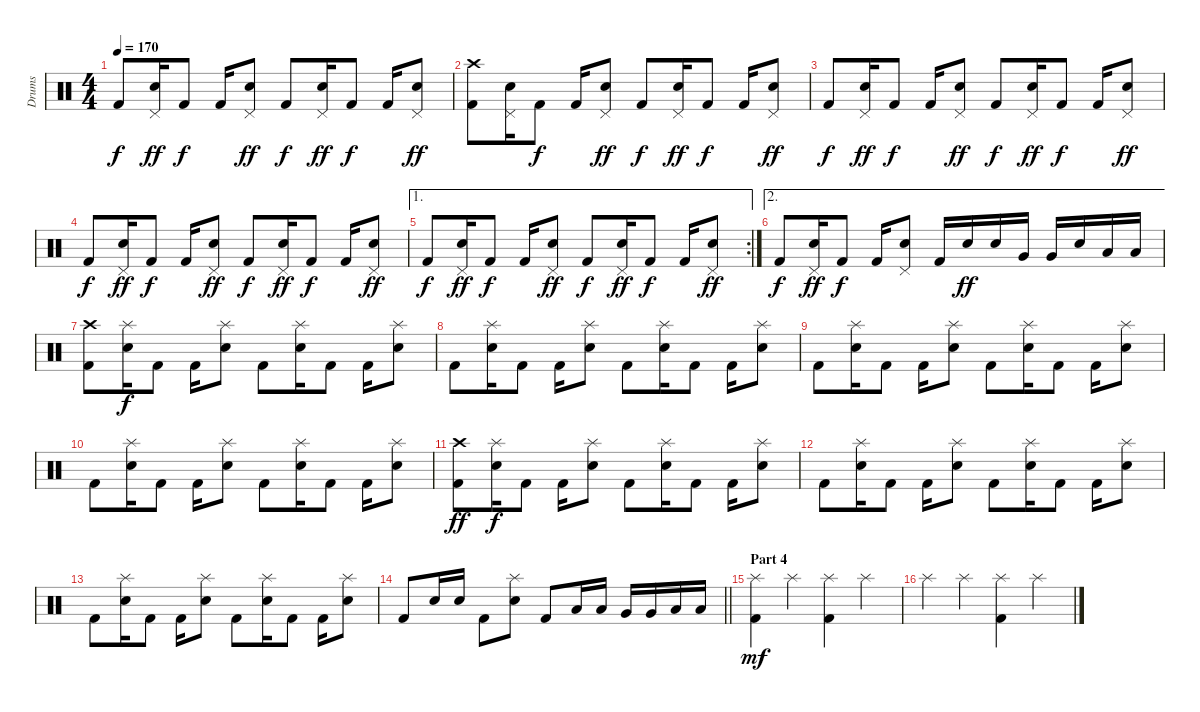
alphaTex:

\track ("Drums" "Drums") {instrument percussion}
\staff {score}
\articulation defaults
\ts (4 4)
\tempo 170
\clef neutral
\ks c "Kick (hit) 2".8{dy f}
("Electric Snare (hit)" "Pedal Hi-Hat (hit)").16{dy ff} "Kick (hit) 2".8{dy f} "Kick (hit) 2".16 ("Electric Snare (hit)" "Pedal Hi-Hat (hit)").8{dy ff} "Kick (hit) 2".8{dy f} ("Electric Snare (hit)" "Pedal Hi-Hat (hit)").16{dy ff} "Kick (hit) 2".8{dy f} "Kick (hit) 2".16 ("Electric Snare (hit)" "Pedal Hi-Hat (hit)").8{dy ff} |
("Kick (hit) 2" "Crash high (hit)").8 ("Electric Snare (hit)" "Pedal Hi-Hat (hit)").16 "Kick (hit) 2".8{dy f} "Kick (hit) 2".16 ("Electric Snare (hit)" "Pedal Hi-Hat (hit)").8{dy ff} "Kick (hit) 2".8{dy f} ("Electric Snare (hit)" "Pedal Hi-Hat (hit)").16{dy ff} "Kick (hit) 2".8{dy f} "Kick (hit) 2".16 ("Electric Snare (hit)" "Pedal Hi-Hat (hit)").8{dy ff} |
"Kick (hit) 2".8{dy f} ("Electric Snare (hit)" "Pedal Hi-Hat (hit)").16{dy ff} "Kick (hit) 2".8{dy f} "Kick (hit) 2".16 ("Electric Snare (hit)" "Pedal Hi-Hat (hit)").8{dy ff} "Kick (hit) 2".8{dy f} ("Electric Snare (hit)" "Pedal Hi-Hat (hit)").16{dy ff} "Kick (hit) 2".8{dy f} "Kick (hit) 2".16 ("Electric Snare (hit)" "Pedal Hi-Hat (hit)").8{dy ff} |
"Kick (hit) 2".8{dy f} ("Electric Snare (hit)" "Pedal Hi-Hat (hit)").16{dy ff} "Kick (hit) 2".8{dy f} "Kick (hit) 2".16 ("Electric Snare (hit)" "Pedal Hi-Hat (hit)").8{dy ff} "Kick (hit) 2".8{dy f} ("Electric Snare (hit)" "Pedal Hi-Hat (hit)").16{dy ff} "Kick (hit) 2".8{dy f} "Kick (hit) 2".16 ("Electric Snare (hit)" "Pedal Hi-Hat (hit)").8{dy ff} |
\ae 1
\rc 2 "Kick (hit) 2".8{dy f}
("Electric Snare (hit)" "Pedal Hi-Hat (hit)").16{dy ff} "Kick (hit) 2".8{dy f} "Kick (hit) 2".16 ("Electric Snare (hit)" "Pedal Hi-Hat (hit)").8{dy ff} "Kick (hit) 2".8{dy f} ("Electric Snare (hit)" "Pedal Hi-Hat (hit)").16{dy ff} "Kick (hit) 2".8{dy f} "Kick (hit) 2".16 ("Electric Snare (hit)" "Pedal Hi-Hat (hit)").8{dy ff} |
\ae 2 "Kick (hit) 2".8{dy f}
("Electric Snare (hit)" "Pedal Hi-Hat (hit)").16{dy ff} "Kick (hit) 2".8{dy f} "Kick (hit) 2".16 ("Electric Snare (hit)" "Pedal Hi-Hat (hit)").8 "Kick (hit) 2".16 "Electric Snare (hit)".16{dy ff} "Electric Snare (hit)".16 "Very Low Tom (hit)".16 "Very Low Tom (hit)".16 "Electric Snare (hit)".16 "Low Floor Tom (hit)".16 "Low Floor Tom (hit)".16 |
("Kick (hit) 2" "Crash high (hit)").8 ("Electric Snare (hit)" "Splash (hit)").16{dy f} "Kick (hit) 2".8 "Kick (hit) 2".16 ("Electric Snare (hit)" "Splash (hit)").8 "Kick (hit) 2".8 ("Electric Snare (hit)" "Splash (hit)").16 "Kick (hit) 2".8 "Kick (hit) 2".16 ("Electric Snare (hit)" "Splash (hit)").8 |
"Kick (hit) 2".8 ("Electric Snare (hit)" "Splash (hit)").16 "Kick (hit) 2".8 "Kick (hit) 2".16 ("Electric Snare (hit)" "Splash (hit)").8 "Kick (hit) 2".8 ("Electric Snare (hit)" "Splash (hit)").16 "Kick (hit) 2".8 "Kick (hit) 2".16 ("Electric Snare (hit)" "Splash (hit)").8 |
"Kick (hit) 2".8 ("Electric Snare (hit)" "Splash (hit)").16 "Kick (hit) 2".8 "Kick (hit) 2".16 ("Electric Snare (hit)" "Splash (hit)").8 "Kick (hit) 2".8 ("Electric Snare (hit)" "Splash (hit)").16 "Kick (hit) 2".8 "Kick (hit) 2".16 ("Electric Snare (hit)" "Splash (hit)").8 |
"Kick (hit) 2".8 ("Electric Snare (hit)" "Splash (hit)").16 "Kick (hit) 2".8 "Kick (hit) 2".16 ("Electric Snare (hit)" "Splash (hit)").8 "Kick (hit) 2".8 ("Electric Snare (hit)" "Splash (hit)").16 "Kick (hit) 2".8 "Kick (hit) 2".16 ("Electric Snare (hit)" "Splash (hit)").8 |
("Kick (hit) 2" "Crash high (hit)").8{dy ff} ("Electric Snare (hit)" "Splash (hit)").16{dy f} "Kick (hit) 2".8 "Kick (hit) 2".16 ("Electric Snare (hit)" "Splash (hit)").8 "Kick (hit) 2".8 ("Electric Snare (hit)" "Splash (hit)").16 "Kick (hit) 2".8 "Kick (hit) 2".16 ("Electric Snare (hit)" "Splash (hit)").8 |
"Kick (hit) 2".8 ("Electric Snare (hit)" "Splash (hit)").16 "Kick (hit) 2".8 "Kick (hit) 2".16 ("Electric Snare (hit)" "Splash (hit)").8 "Kick (hit) 2".8 ("Electric Snare (hit)" "Splash (hit)").16 "Kick (hit) 2".8 "Kick (hit) 2".16 ("Electric Snare (hit)" "Splash (hit)").8 |
"Kick (hit) 2".8 ("Electric Snare (hit)" "Splash (hit)").16 "Kick (hit) 2".8 "Kick (hit) 2".16 ("Electric Snare (hit)" "Splash (hit)").8 "Kick (hit) 2".8 ("Electric Snare (hit)" "Splash (hit)").16 "Kick (hit) 2".8 "Kick (hit) 2".16 ("Electric Snare (hit)" "Splash (hit)").8 |
\barLineRight lightlight "Kick (hit) 2".8 "Electric Snare (hit)".16 "Electric Snare (hit)".16 "Kick (hit) 2".8
("Electric Snare (hit)" "Splash (hit)").8 "Kick (hit) 2".8 "Low Tom (hit)".16 "Low Tom (hit)".16 "Very Low Tom (hit)".16 "Very Low Tom (hit)".16 "Low Floor Tom (hit)".16 "Low Floor Tom (hit)".16 |
\section ("" "Part 4")
("Kick (hit) 2" "Splash (hit)").4{dy mf} "Splash (hit)".4 ("Kick (hit) 2" "Splash (hit)").4 "Splash (hit)".4 |
"Splash (hit)".4 "Splash (hit)".4 ("Kick (hit) 2" "Splash (hit)").4 "Splash (hit)".4
